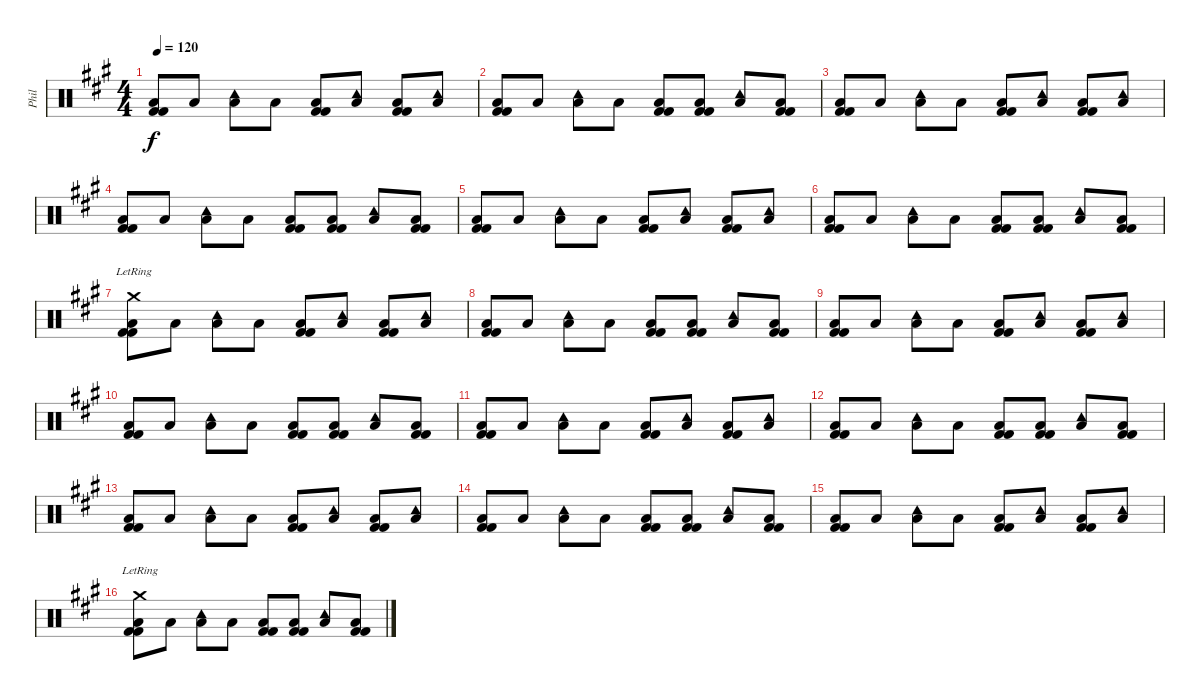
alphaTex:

\track ("Phil" "Phil") {instrument percussion}
\staff {score}
\articulation defaults
\ts (4 4)
\tempo 120
\clef neutral
\ks a
("Kick (hit) 2" "Low Floor Tom (hit)" "Kick (hit) 2").8{dy f} "Low Floor Tom (hit)".8 ("Low Floor Tom (hit)" "Tambourine (hit)").8 "Low Floor Tom (hit)".8 ("Kick (hit) 2" "Low Floor Tom (hit)" "Kick (hit) 2").8 ("Low Floor Tom (hit)" "Tambourine (hit)").8 ("Kick (hit) 2" "Low Floor Tom (hit)" "Kick (hit) 2").8 ("Low Floor Tom (hit)" "Tambourine (hit)").8 |
("Kick (hit) 2" "Low Floor Tom (hit)" "Kick (hit) 2").8 "Low Floor Tom (hit)".8 ("Low Floor Tom (hit)" "Tambourine (hit)").8 "Low Floor Tom (hit)".8 ("Kick (hit) 2" "Low Floor Tom (hit)" "Kick (hit) 2").8 ("Kick (hit) 2" "Low Floor Tom (hit)" "Kick (hit) 2").8 ("Low Floor Tom (hit)" "Tambourine (hit)").8 ("Kick (hit) 2" "Low Floor Tom (hit)" "Kick (hit) 2").8 |
("Kick (hit) 2" "Low Floor Tom (hit)" "Kick (hit) 2").8 "Low Floor Tom (hit)".8 ("Low Floor Tom (hit)" "Tambourine (hit)").8 "Low Floor Tom (hit)".8 ("Kick (hit) 2" "Low Floor Tom (hit)" "Kick (hit) 2").8 ("Low Floor Tom (hit)" "Tambourine (hit)").8 ("Kick (hit) 2" "Low Floor Tom (hit)" "Kick (hit) 2").8 ("Low Floor Tom (hit)" "Tambourine (hit)").8 |
("Kick (hit) 2" "Low Floor Tom (hit)" "Kick (hit) 2").8 "Low Floor Tom (hit)".8 ("Low Floor Tom (hit)" "Tambourine (hit)").8 "Low Floor Tom (hit)".8 ("Kick (hit) 2" "Low Floor Tom (hit)" "Kick (hit) 2").8 ("Kick (hit) 2" "Low Floor Tom (hit)" "Kick (hit) 2").8 ("Low Floor Tom (hit)" "Tambourine (hit)").8 ("Kick (hit) 2" "Low Floor Tom (hit)" "Kick (hit) 2").8 |
("Kick (hit) 2" "Low Floor Tom (hit)" "Kick (hit) 2").8 "Low Floor Tom (hit)".8 ("Low Floor Tom (hit)" "Tambourine (hit)").8 "Low Floor Tom (hit)".8 ("Kick (hit) 2" "Low Floor Tom (hit)" "Kick (hit) 2").8 ("Low Floor Tom (hit)" "Tambourine (hit)").8 ("Kick (hit) 2" "Low Floor Tom (hit)" "Kick (hit) 2").8 ("Low Floor Tom (hit)" "Tambourine (hit)").8 |
("Kick (hit) 2" "Low Floor Tom (hit)" "Kick (hit) 2").8 "Low Floor Tom (hit)".8 ("Low Floor Tom (hit)" "Tambourine (hit)").8 "Low Floor Tom (hit)".8 ("Kick (hit) 2" "Low Floor Tom (hit)" "Kick (hit) 2").8 ("Kick (hit) 2" "Low Floor Tom (hit)" "Kick (hit) 2").8 ("Low Floor Tom (hit)" "Tambourine (hit)").8 ("Kick (hit) 2" "Low Floor Tom (hit)" "Kick (hit) 2").8 |
("Kick (hit) 2" "Low Floor Tom (hit)" "Kick (hit) 2" "Crash medium (hit)"{lr}).8 "Low Floor Tom (hit)".8 ("Low Floor Tom (hit)" "Tambourine (hit)").8 "Low Floor Tom (hit)".8 ("Kick (hit) 2" "Low Floor Tom (hit)" "Kick (hit) 2").8 ("Low Floor Tom (hit)" "Tambourine (hit)").8 ("Kick (hit) 2" "Low Floor Tom (hit)" "Kick (hit) 2").8 ("Low Floor Tom (hit)" "Tambourine (hit)").8 |
("Kick (hit) 2" "Low Floor Tom (hit)" "Kick (hit) 2").8 "Low Floor Tom (hit)".8 ("Low Floor Tom (hit)" "Tambourine (hit)").8 "Low Floor Tom (hit)".8 ("Kick (hit) 2" "Low Floor Tom (hit)" "Kick (hit) 2").8 ("Kick (hit) 2" "Low Floor Tom (hit)" "Kick (hit) 2").8 ("Low Floor Tom (hit)" "Tambourine (hit)").8 ("Kick (hit) 2" "Low Floor Tom (hit)" "Kick (hit) 2").8 |
("Kick (hit) 2" "Low Floor Tom (hit)" "Kick (hit) 2").8 "Low Floor Tom (hit)".8 ("Low Floor Tom (hit)" "Tambourine (hit)").8 "Low Floor Tom (hit)".8 ("Kick (hit) 2" "Low Floor Tom (hit)" "Kick (hit) 2").8 ("Low Floor Tom (hit)" "Tambourine (hit)").8 ("Kick (hit) 2" "Low Floor Tom (hit)" "Kick (hit) 2").8 ("Low Floor Tom (hit)" "Tambourine (hit)").8 |
("Kick (hit) 2" "Low Floor Tom (hit)" "Kick (hit) 2").8 "Low Floor Tom (hit)".8 ("Low Floor Tom (hit)" "Tambourine (hit)").8 "Low Floor Tom (hit)".8 ("Kick (hit) 2" "Low Floor Tom (hit)" "Kick (hit) 2").8 ("Kick (hit) 2" "Low Floor Tom (hit)" "Kick (hit) 2").8 ("Low Floor Tom (hit)" "Tambourine (hit)").8 ("Kick (hit) 2" "Low Floor Tom (hit)" "Kick (hit) 2").8 |
("Kick (hit) 2" "Low Floor Tom (hit)" "Kick (hit) 2").8 "Low Floor Tom (hit)".8 ("Low Floor Tom (hit)" "Tambourine (hit)").8 "Low Floor Tom (hit)".8 ("Kick (hit) 2" "Low Floor Tom (hit)" "Kick (hit) 2").8 ("Low Floor Tom (hit)" "Tambourine (hit)").8 ("Kick (hit) 2" "Low Floor Tom (hit)" "Kick (hit) 2").8 ("Low Floor Tom (hit)" "Tambourine (hit)").8 |
("Kick (hit) 2" "Low Floor Tom (hit)" "Kick (hit) 2").8 "Low Floor Tom (hit)".8 ("Low Floor Tom (hit)" "Tambourine (hit)").8 "Low Floor Tom (hit)".8 ("Kick (hit) 2" "Low Floor Tom (hit)" "Kick (hit) 2").8 ("Kick (hit) 2" "Low Floor Tom (hit)" "Kick (hit) 2").8 ("Low Floor Tom (hit)" "Tambourine (hit)").8 ("Kick (hit) 2" "Low Floor Tom (hit)" "Kick (hit) 2").8 |
("Kick (hit) 2" "Low Floor Tom (hit)" "Kick (hit) 2").8 "Low Floor Tom (hit)".8 ("Low Floor Tom (hit)" "Tambourine (hit)").8 "Low Floor Tom (hit)".8 ("Kick (hit) 2" "Low Floor Tom (hit)" "Kick (hit) 2").8 ("Low Floor Tom (hit)" "Tambourine (hit)").8 ("Kick (hit) 2" "Low Floor Tom (hit)" "Kick (hit) 2").8 ("Low Floor Tom (hit)" "Tambourine (hit)").8 |
("Kick (hit) 2" "Low Floor Tom (hit)" "Kick (hit) 2").8 "Low Floor Tom (hit)".8 ("Low Floor Tom (hit)" "Tambourine (hit)").8 "Low Floor Tom (hit)".8 ("Kick (hit) 2" "Low Floor Tom (hit)" "Kick (hit) 2").8 ("Kick (hit) 2" "Low Floor Tom (hit)" "Kick (hit) 2").8 ("Low Floor Tom (hit)" "Tambourine (hit)").8 ("Kick (hit) 2" "Low Floor Tom (hit)" "Kick (hit) 2").8 |
("Kick (hit) 2" "Low Floor Tom (hit)" "Kick (hit) 2").8 "Low Floor Tom (hit)".8 ("Low Floor Tom (hit)" "Tambourine (hit)").8 "Low Floor Tom (hit)".8 ("Kick (hit) 2" "Low Floor Tom (hit)" "Kick (hit) 2").8 ("Low Floor Tom (hit)" "Tambourine (hit)").8 ("Kick (hit) 2" "Low Floor Tom (hit)" "Kick (hit) 2").8 ("Low Floor Tom (hit)" "Tambourine (hit)").8 |
("Kick (hit) 2" "Low Floor Tom (hit)" "Kick (hit) 2" "Crash medium (hit)"{lr}).8 "Low Floor Tom (hit)".8 ("Low Floor Tom (hit)" "Tambourine (hit)").8 "Low Floor Tom (hit)".8 ("Kick (hit) 2" "Low Floor Tom (hit)" "Kick (hit) 2").8 ("Kick (hit) 2" "Low Floor Tom (hit)" "Kick (hit) 2").8 ("Low Floor Tom (hit)" "Tambourine (hit)").8 ("Kick (hit) 2" "Low Floor Tom (hit)" "Kick (hit) 2").8
